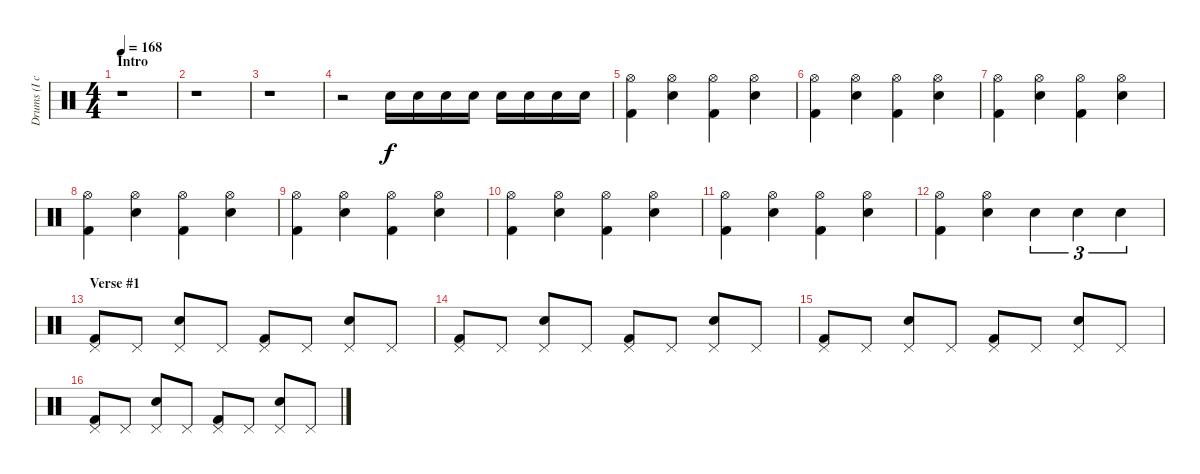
\track ("Drums (I can't tab drums too well...)" "Drums (I c") {instrument percussion}
\staff {score}
\articulation defaults
\ts (4 4)
\section ("" "Intro")
\tempo 168
\clef neutral
\ks c
r.1{dy f} |
r.1 |
r.1 |
r.2 "Snare (hit) 2".16 "Snare (hit) 2".16 "Snare (hit) 2".16 "Snare (hit) 2".16 "Snare (hit) 2".16 "Snare (hit) 2".16 "Snare (hit) 2".16 "Snare (hit) 2".16 |
("Hi-Hat (open)" "Kick (hit) 2").4 ("Hi-Hat (open)" "Snare (hit) 2").4 ("Hi-Hat (open)" "Kick (hit) 2").4 ("Hi-Hat (open)" "Snare (hit) 2").4 |
("Hi-Hat (open)" "Kick (hit) 2").4 ("Hi-Hat (open)" "Snare (hit) 2").4 ("Hi-Hat (open)" "Kick (hit) 2").4 ("Hi-Hat (open)" "Snare (hit) 2").4 |
("Hi-Hat (open)" "Kick (hit) 2").4 ("Hi-Hat (open)" "Snare (hit) 2").4 ("Hi-Hat (open)" "Kick (hit) 2").4 ("Hi-Hat (open)" "Snare (hit) 2").4 |
("Hi-Hat (open)" "Kick (hit) 2").4 ("Hi-Hat (open)" "Snare (hit) 2").4 ("Hi-Hat (open)" "Kick (hit) 2").4 ("Hi-Hat (open)" "Snare (hit) 2").4 |
("Hi-Hat (open)" "Kick (hit) 2").4 ("Hi-Hat (open)" "Snare (hit) 2").4 ("Hi-Hat (open)" "Kick (hit) 2").4 ("Hi-Hat (open)" "Snare (hit) 2").4 |
("Hi-Hat (open)" "Kick (hit) 2").4 ("Hi-Hat (open)" "Snare (hit) 2").4 ("Hi-Hat (open)" "Kick (hit) 2").4 ("Hi-Hat (open)" "Snare (hit) 2").4 |
("Hi-Hat (open)" "Kick (hit) 2").4 ("Hi-Hat (open)" "Snare (hit) 2").4 ("Hi-Hat (open)" "Kick (hit) 2").4 ("Hi-Hat (open)" "Snare (hit) 2").4 |
("Hi-Hat (open)" "Kick (hit) 2").4 ("Hi-Hat (open)" "Snare (hit) 2").4 "Snare (hit) 2".4{tu (3 2)} "Snare (hit) 2".4{tu (3 2)} "Snare (hit) 2".4{tu (3 2)} |
\section ("" "Verse #1")
("Pedal Hi-Hat (hit)" "Kick (hit) 2").8 "Pedal Hi-Hat (hit)".8 ("Pedal Hi-Hat (hit)" "Snare (hit) 2").8 "Pedal Hi-Hat (hit)".8 ("Pedal Hi-Hat (hit)" "Kick (hit) 2").8 "Pedal Hi-Hat (hit)".8 ("Pedal Hi-Hat (hit)" "Snare (hit) 2").8 "Pedal Hi-Hat (hit)".8 |
("Pedal Hi-Hat (hit)" "Kick (hit) 2").8 "Pedal Hi-Hat (hit)".8 ("Pedal Hi-Hat (hit)" "Snare (hit) 2").8 "Pedal Hi-Hat (hit)".8 ("Pedal Hi-Hat (hit)" "Kick (hit) 2").8 "Pedal Hi-Hat (hit)".8 ("Pedal Hi-Hat (hit)" "Snare (hit) 2").8 "Pedal Hi-Hat (hit)".8 |
("Pedal Hi-Hat (hit)" "Kick (hit) 2").8 "Pedal Hi-Hat (hit)".8 ("Pedal Hi-Hat (hit)" "Snare (hit) 2").8 "Pedal Hi-Hat (hit)".8 ("Pedal Hi-Hat (hit)" "Kick (hit) 2").8 "Pedal Hi-Hat (hit)".8 ("Pedal Hi-Hat (hit)" "Snare (hit) 2").8 "Pedal Hi-Hat (hit)".8 |
("Pedal Hi-Hat (hit)" "Kick (hit) 2").8 "Pedal Hi-Hat (hit)".8 ("Pedal Hi-Hat (hit)" "Snare (hit) 2").8 "Pedal Hi-Hat (hit)".8 ("Pedal Hi-Hat (hit)" "Kick (hit) 2").8 "Pedal Hi-Hat (hit)".8 ("Pedal Hi-Hat (hit)" "Snare (hit) 2").8 "Pedal Hi-Hat (hit)".8
